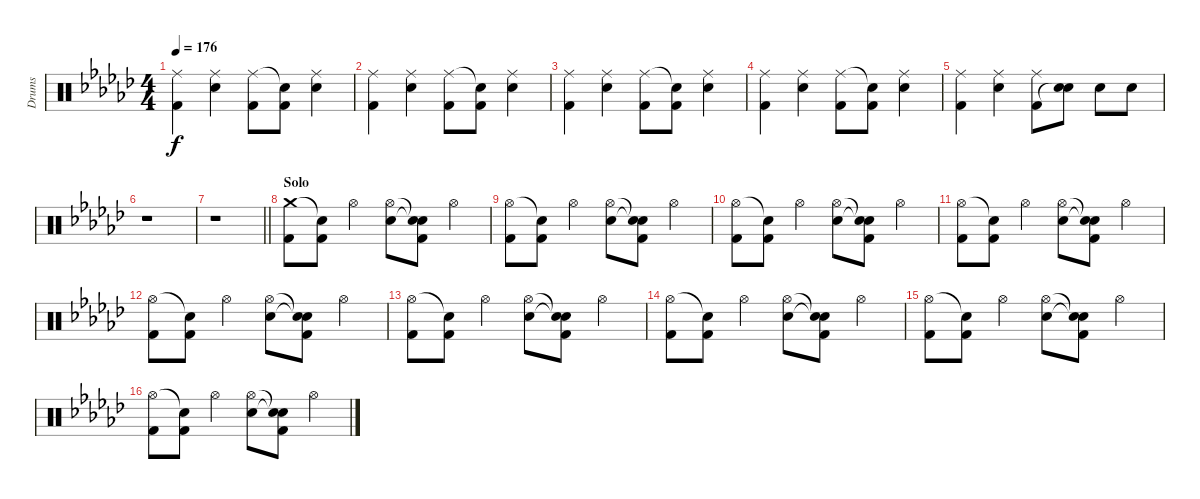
\track ("Drums" "Drums") {instrument percussion}
\staff {score}
\articulation defaults
\ts (4 4)
\tempo 176
\clef neutral
\ks ebminor
("Ride (middle)" "Kick (hit) 2").4{dy f} ("Ride (middle)" "Electric Snare (hit)").4 ("Ride (middle)" "Kick (hit) 2").8 ("Snare (hit)"{t} "Kick (hit) 2").8 ("Ride (middle)" "Electric Snare (hit)").4 |
("Ride (middle)" "Kick (hit) 2").4 ("Ride (middle)" "Electric Snare (hit)").4 ("Ride (middle)" "Kick (hit) 2").8 ("Snare (hit)"{t} "Kick (hit) 2").8 ("Ride (middle)" "Electric Snare (hit)").4 |
("Ride (middle)" "Kick (hit) 2").4 ("Ride (middle)" "Electric Snare (hit)").4 ("Ride (middle)" "Kick (hit) 2").8 ("Snare (hit)"{t} "Kick (hit) 2").8 ("Ride (middle)" "Electric Snare (hit)").4 |
("Ride (middle)" "Kick (hit) 2").4 ("Ride (middle)" "Electric Snare (hit)").4 ("Ride (middle)" "Kick (hit) 2").8 ("Snare (hit)"{t} "Kick (hit) 2").8 ("Ride (middle)" "Electric Snare (hit)").4 |
("Ride (middle)" "Kick (hit) 2").4 ("Ride (middle)" "Electric Snare (hit)").4 ("Ride (middle)" "Kick (hit) 2").8 ("Electric Snare (hit)" "Snare (hit)"{t}).8 "Electric Snare (hit)".8 "Electric Snare (hit)".8 |
r.1 |
\barLineRight lightlight
r.1 |
\section ("" "Solo")
("Crash medium (hit)" "Kick (hit) 2").8 ("Snare (hit)"{t} "Kick (hit) 2").8 "Hi-Hat (open)".4 ("Hi-Hat (open)" "Electric Snare (hit)").8 ("Snare (hit)"{t} "Snare (hit)"{t} "Kick (hit) 2").8 "Hi-Hat (open)".4 |
("Hi-Hat (open)" "Kick (hit) 2").8 ("Snare (hit)"{t} "Kick (hit) 2").8 "Hi-Hat (open)".4 ("Hi-Hat (open)" "Electric Snare (hit)").8 ("Snare (hit)"{t} "Snare (hit)"{t} "Kick (hit) 2").8 "Hi-Hat (open)".4 |
("Hi-Hat (open)" "Kick (hit) 2").8 ("Snare (hit)"{t} "Kick (hit) 2").8 "Hi-Hat (open)".4 ("Hi-Hat (open)" "Electric Snare (hit)").8 ("Snare (hit)"{t} "Snare (hit)"{t} "Kick (hit) 2").8 "Hi-Hat (open)".4 |
("Hi-Hat (open)" "Kick (hit) 2").8 ("Snare (hit)"{t} "Kick (hit) 2").8 "Hi-Hat (open)".4 ("Hi-Hat (open)" "Electric Snare (hit)").8 ("Snare (hit)"{t} "Snare (hit)"{t} "Kick (hit) 2").8 "Hi-Hat (open)".4 |
("Hi-Hat (open)" "Kick (hit) 2").8 ("Snare (hit)"{t} "Kick (hit) 2").8 "Hi-Hat (open)".4 ("Hi-Hat (open)" "Electric Snare (hit)").8 ("Snare (hit)"{t} "Snare (hit)"{t} "Kick (hit) 2").8 "Hi-Hat (open)".4 |
("Hi-Hat (open)" "Kick (hit) 2").8 ("Snare (hit)"{t} "Kick (hit) 2").8 "Hi-Hat (open)".4 ("Hi-Hat (open)" "Electric Snare (hit)").8 ("Snare (hit)"{t} "Snare (hit)"{t} "Kick (hit) 2").8 "Hi-Hat (open)".4 |
("Hi-Hat (open)" "Kick (hit) 2").8 ("Snare (hit)"{t} "Kick (hit) 2").8 "Hi-Hat (open)".4 ("Hi-Hat (open)" "Electric Snare (hit)").8 ("Snare (hit)"{t} "Snare (hit)"{t} "Kick (hit) 2").8 "Hi-Hat (open)".4 |
("Hi-Hat (open)" "Kick (hit) 2").8 ("Snare (hit)"{t} "Kick (hit) 2").8 "Hi-Hat (open)".4 ("Hi-Hat (open)" "Electric Snare (hit)").8 ("Snare (hit)"{t} "Snare (hit)"{t} "Kick (hit) 2").8 "Hi-Hat (open)".4 |
("Hi-Hat (open)" "Kick (hit) 2").8 ("Snare (hit)"{t} "Kick (hit) 2").8 "Hi-Hat (open)".4 ("Hi-Hat (open)" "Electric Snare (hit)").8 ("Snare (hit)"{t} "Snare (hit)"{t} "Kick (hit) 2").8 "Hi-Hat (open)".4
